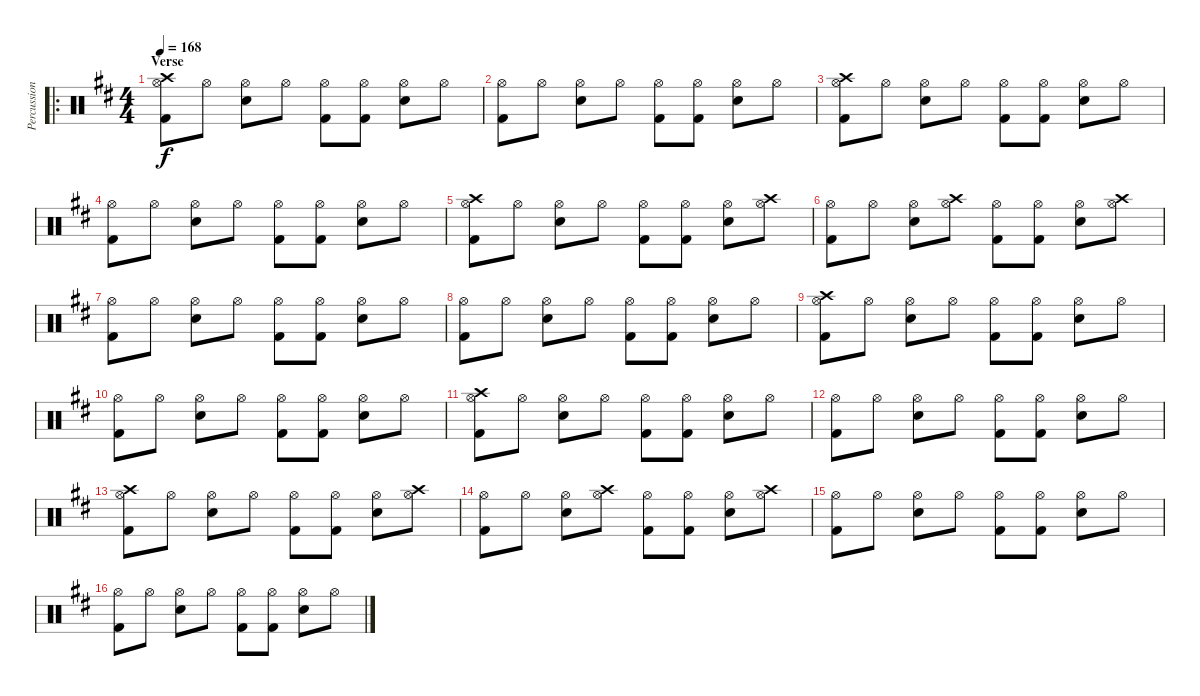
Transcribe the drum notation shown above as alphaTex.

\track ("Percussion" "Percussion") {instrument percussion}
\staff {score}
\articulation defaults
\ro
\ts (4 4)
\section ("" "Verse")
\tempo 168
\clef neutral
\ks d
("Crash high (hit)" "Kick (hit) 2" "Hi-Hat (open)").8{dy f} "Hi-Hat (open)".8 ("Electric Snare (hit)" "Hi-Hat (open)").8 "Hi-Hat (open)".8 ("Kick (hit) 2" "Hi-Hat (open)").8 ("Kick (hit) 2" "Hi-Hat (open)").8 ("Electric Snare (hit)" "Hi-Hat (open)").8 "Hi-Hat (open)".8 |
("Kick (hit) 2" "Hi-Hat (open)").8 "Hi-Hat (open)".8 ("Electric Snare (hit)" "Hi-Hat (open)").8 "Hi-Hat (open)".8 ("Kick (hit) 2" "Hi-Hat (open)").8 ("Kick (hit) 2" "Hi-Hat (open)").8 ("Electric Snare (hit)" "Hi-Hat (open)").8 "Hi-Hat (open)".8 |
("Crash high (hit)" "Kick (hit) 2" "Hi-Hat (open)").8 "Hi-Hat (open)".8 ("Electric Snare (hit)" "Hi-Hat (open)").8 "Hi-Hat (open)".8 ("Kick (hit) 2" "Hi-Hat (open)").8 ("Kick (hit) 2" "Hi-Hat (open)").8 ("Electric Snare (hit)" "Hi-Hat (open)").8 "Hi-Hat (open)".8 |
("Kick (hit) 2" "Hi-Hat (open)").8 "Hi-Hat (open)".8 ("Electric Snare (hit)" "Hi-Hat (open)").8 "Hi-Hat (open)".8 ("Kick (hit) 2" "Hi-Hat (open)").8 ("Kick (hit) 2" "Hi-Hat (open)").8 ("Electric Snare (hit)" "Hi-Hat (open)").8 "Hi-Hat (open)".8 |
("Crash high (hit)" "Kick (hit) 2" "Hi-Hat (open)").8 "Hi-Hat (open)".8 ("Electric Snare (hit)" "Hi-Hat (open)").8 "Hi-Hat (open)".8 ("Kick (hit) 2" "Hi-Hat (open)").8 ("Kick (hit) 2" "Hi-Hat (open)").8 ("Electric Snare (hit)" "Hi-Hat (open)").8 ("Crash high (hit)" "Hi-Hat (open)").8 |
("Kick (hit) 2" "Hi-Hat (open)").8 "Hi-Hat (open)".8 ("Electric Snare (hit)" "Hi-Hat (open)").8 ("Crash high (hit)" "Hi-Hat (open)").8 ("Kick (hit) 2" "Hi-Hat (open)").8 ("Kick (hit) 2" "Hi-Hat (open)").8 ("Electric Snare (hit)" "Hi-Hat (open)").8 ("Crash high (hit)" "Hi-Hat (open)").8 |
("Kick (hit) 2" "Hi-Hat (open)").8 "Hi-Hat (open)".8 ("Electric Snare (hit)" "Hi-Hat (open)").8 "Hi-Hat (open)".8 ("Kick (hit) 2" "Hi-Hat (open)").8 ("Kick (hit) 2" "Hi-Hat (open)").8 ("Electric Snare (hit)" "Hi-Hat (open)").8 "Hi-Hat (open)".8 |
("Kick (hit) 2" "Hi-Hat (open)").8 "Hi-Hat (open)".8 ("Electric Snare (hit)" "Hi-Hat (open)").8 "Hi-Hat (open)".8 ("Kick (hit) 2" "Hi-Hat (open)").8 ("Kick (hit) 2" "Hi-Hat (open)").8 ("Electric Snare (hit)" "Hi-Hat (open)").8 "Hi-Hat (open)".8 |
("Crash high (hit)" "Kick (hit) 2" "Hi-Hat (open)").8 "Hi-Hat (open)".8 ("Electric Snare (hit)" "Hi-Hat (open)").8 "Hi-Hat (open)".8 ("Kick (hit) 2" "Hi-Hat (open)").8 ("Kick (hit) 2" "Hi-Hat (open)").8 ("Electric Snare (hit)" "Hi-Hat (open)").8 "Hi-Hat (open)".8 |
("Kick (hit) 2" "Hi-Hat (open)").8 "Hi-Hat (open)".8 ("Electric Snare (hit)" "Hi-Hat (open)").8 "Hi-Hat (open)".8 ("Kick (hit) 2" "Hi-Hat (open)").8 ("Kick (hit) 2" "Hi-Hat (open)").8 ("Electric Snare (hit)" "Hi-Hat (open)").8 "Hi-Hat (open)".8 |
("Crash high (hit)" "Kick (hit) 2" "Hi-Hat (open)").8 "Hi-Hat (open)".8 ("Electric Snare (hit)" "Hi-Hat (open)").8 "Hi-Hat (open)".8 ("Kick (hit) 2" "Hi-Hat (open)").8 ("Kick (hit) 2" "Hi-Hat (open)").8 ("Electric Snare (hit)" "Hi-Hat (open)").8 "Hi-Hat (open)".8 |
("Kick (hit) 2" "Hi-Hat (open)").8 "Hi-Hat (open)".8 ("Electric Snare (hit)" "Hi-Hat (open)").8 "Hi-Hat (open)".8 ("Kick (hit) 2" "Hi-Hat (open)").8 ("Kick (hit) 2" "Hi-Hat (open)").8 ("Electric Snare (hit)" "Hi-Hat (open)").8 "Hi-Hat (open)".8 |
("Crash high (hit)" "Kick (hit) 2" "Hi-Hat (open)").8 "Hi-Hat (open)".8 ("Electric Snare (hit)" "Hi-Hat (open)").8 "Hi-Hat (open)".8 ("Kick (hit) 2" "Hi-Hat (open)").8 ("Kick (hit) 2" "Hi-Hat (open)").8 ("Electric Snare (hit)" "Hi-Hat (open)").8 ("Crash high (hit)" "Hi-Hat (open)").8 |
("Kick (hit) 2" "Hi-Hat (open)").8 "Hi-Hat (open)".8 ("Electric Snare (hit)" "Hi-Hat (open)").8 ("Crash high (hit)" "Hi-Hat (open)").8 ("Kick (hit) 2" "Hi-Hat (open)").8 ("Kick (hit) 2" "Hi-Hat (open)").8 ("Electric Snare (hit)" "Hi-Hat (open)").8 ("Crash high (hit)" "Hi-Hat (open)").8 |
("Kick (hit) 2" "Hi-Hat (open)").8 "Hi-Hat (open)".8 ("Electric Snare (hit)" "Hi-Hat (open)").8 "Hi-Hat (open)".8 ("Kick (hit) 2" "Hi-Hat (open)").8 ("Kick (hit) 2" "Hi-Hat (open)").8 ("Electric Snare (hit)" "Hi-Hat (open)").8 "Hi-Hat (open)".8 |
("Kick (hit) 2" "Hi-Hat (open)").8 "Hi-Hat (open)".8 ("Electric Snare (hit)" "Hi-Hat (open)").8 "Hi-Hat (open)".8 ("Kick (hit) 2" "Hi-Hat (open)").8 ("Kick (hit) 2" "Hi-Hat (open)").8 ("Electric Snare (hit)" "Hi-Hat (open)").8 "Hi-Hat (open)".8
